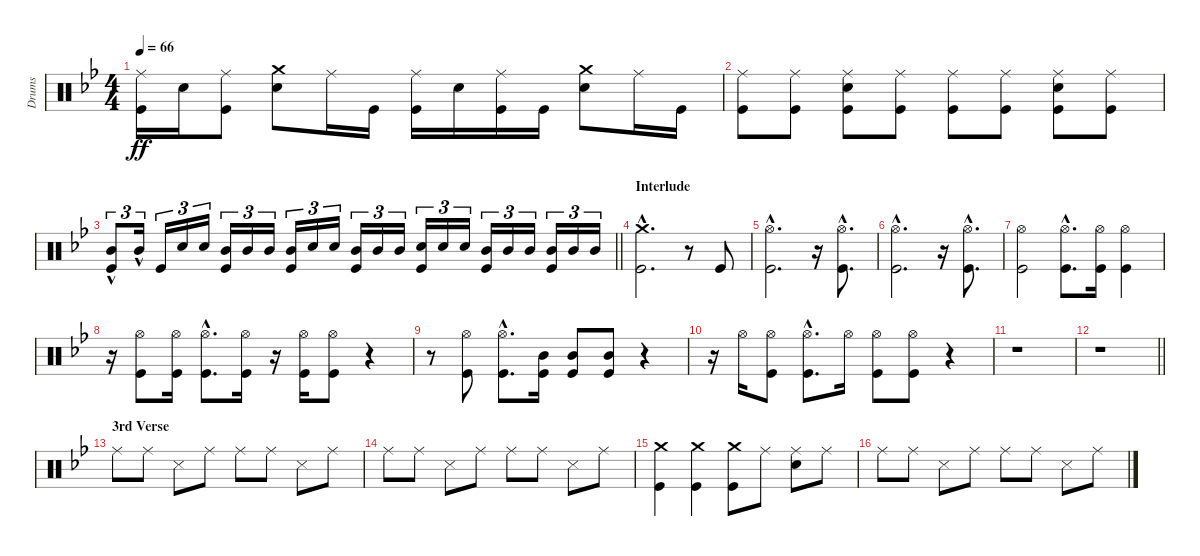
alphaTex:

\track ("Drums" "Drums") {instrument percussion}
\staff {score}
\articulation defaults
\ts (4 4)
\tempo 66
\clef neutral
\ks bb
("Kick (hit)" "Ride (middle)").16{dy ff} "Snare (hit) 2".16 ("Kick (hit)" "Ride (middle)").8 ("Snare (hit) 2" "Crash medium (hit)").8 "Ride (middle)".16 "Kick (hit)".16 ("Kick (hit)" "Ride (middle)").16 "Snare (hit) 2".16 ("Kick (hit)" "Ride (middle)").16 "Kick (hit)".16 ("Snare (hit) 2" "Crash medium (hit)").8 "Ride (middle)".16 "Kick (hit)".16 |
("Kick (hit)" "Ride (middle)").8 ("Kick (hit)" "Ride (middle)").8 ("Kick (hit)" "Snare (hit) 2" "Ride (middle)").8 ("Kick (hit)" "Ride (middle)").8 ("Kick (hit)" "Ride (middle)").8 ("Kick (hit)" "Ride (middle)").8 ("Kick (hit)" "Snare (hit) 2" "Ride (middle)").8 ("Kick (hit)" "Ride (middle)").8 |
\barLineRight lightlight
("Kick (hit)" "Mid Tom (hit)"{hac}).8{tu (3 2)} "Mid Tom (hit)"{hac}.16{tu (3 2)} "Kick (hit)".16{tu (3 2)} "Snare (hit) 2".16{tu (3 2)} "Snare (hit) 2".16{tu (3 2)} ("Kick (hit)" "Mid Tom (hit)").16{tu (3 2)} "Mid Tom (hit)".16{tu (3 2)} "Mid Tom (hit)".16{tu (3 2)} ("Kick (hit)" "Mid Tom (hit)").16{tu (3 2)} "Snare (hit) 2".16{tu (3 2)} "Snare (hit) 2".16{tu (3 2)} ("Kick (hit)" "Mid Tom (hit)").16{tu (3 2)} "Mid Tom (hit)".16{tu (3 2)} "Mid Tom (hit)".16{tu (3 2)} ("Kick (hit)" "Snare (hit) 2").16{tu (3 2)} "Snare (hit) 2".16{tu (3 2)} "Snare (hit) 2".16{tu (3 2)} ("Kick (hit)" "Mid Tom (hit)").16{tu (3 2)} "Mid Tom (hit)".16{tu (3 2)} "Mid Tom (hit)".16{tu (3 2)} ("Kick (hit)" "Mid Tom (hit)").16{tu (3 2)} "Mid Tom (hit)".16{tu (3 2)} "Mid Tom (hit)".16{tu (3 2)} |
\section ("" "Interlude")
("Kick (hit)"{hac} "Crash medium (hit)"{hac}).2{d} r.8 "Kick (hit)".8 |
("Kick (hit)"{hac} "Hi-Hat (open)"{hac}).2{d} r.16 ("Kick (hit)"{hac} "Hi-Hat (open)"{hac}).8{d} |
("Kick (hit)"{hac} "Hi-Hat (open)"{hac}).2{d} r.16 ("Kick (hit)"{hac} "Hi-Hat (open)"{hac}).8{d} |
("Kick (hit)" "Hi-Hat (open)").2 ("Kick (hit)"{hac} "Hi-Hat (open)"{hac}).8{d} ("Kick (hit)" "Hi-Hat (open)").16 ("Kick (hit)" "Hi-Hat (open)").4 |
r.16 ("Kick (hit)" "Hi-Hat (open)").8 ("Kick (hit)" "Hi-Hat (open)").16 ("Kick (hit)"{hac} "Hi-Hat (open)"{hac}).8{d} ("Kick (hit)" "Hi-Hat (open)").16 r.16 ("Kick (hit)" "Hi-Hat (open)").16 ("Kick (hit)" "Hi-Hat (open)").8 r.4 |
r.8 ("Kick (hit)" "Hi-Hat (open)").8 ("Kick (hit)"{hac} "Hi-Hat (open)"{hac}).8{d} ("Kick (hit)" "Mid Tom (hit)").16 ("Kick (hit)" "Mid Tom (hit)").8 ("Kick (hit)" "Mid Tom (hit)").8 r.4 |
r.16 "Hi-Hat (open)".16 ("Kick (hit)" "Hi-Hat (open)").8 ("Kick (hit)"{hac} "Hi-Hat (open)"{hac}).8{d} "Hi-Hat (open)".16 ("Kick (hit)" "Hi-Hat (open)").8 ("Kick (hit)" "Hi-Hat (open)").8 r.4 |
r.1 |
\barLineRight lightlight
r.1 |
\section ("" "3rd Verse")
"Ride (middle)".8 "Ride (middle)".8 "Snare (side stick) 3".8 "Ride (middle)".8 "Ride (middle)".8 "Ride (middle)".8 "Snare (side stick) 3".8 "Ride (middle)".8 |
"Ride (middle)".8 "Ride (middle)".8 "Snare (side stick) 3".8 "Ride (middle)".8 "Ride (middle)".8 "Ride (middle)".8 "Snare (side stick) 3".8 "Ride (middle)".8 |
("Kick (hit)" "Crash medium (hit)").4 ("Kick (hit)" "Crash medium (hit)").4 ("Kick (hit)" "Crash medium (hit)").8 "Ride (middle)".8 ("Snare (hit) 2" "Ride (middle)").8 "Ride (middle)".8 |
"Ride (middle)".8 "Ride (middle)".8 "Snare (side stick) 3".8 "Ride (middle)".8 "Ride (middle)".8 "Ride (middle)".8 "Snare (side stick) 3".8 "Ride (middle)".8
